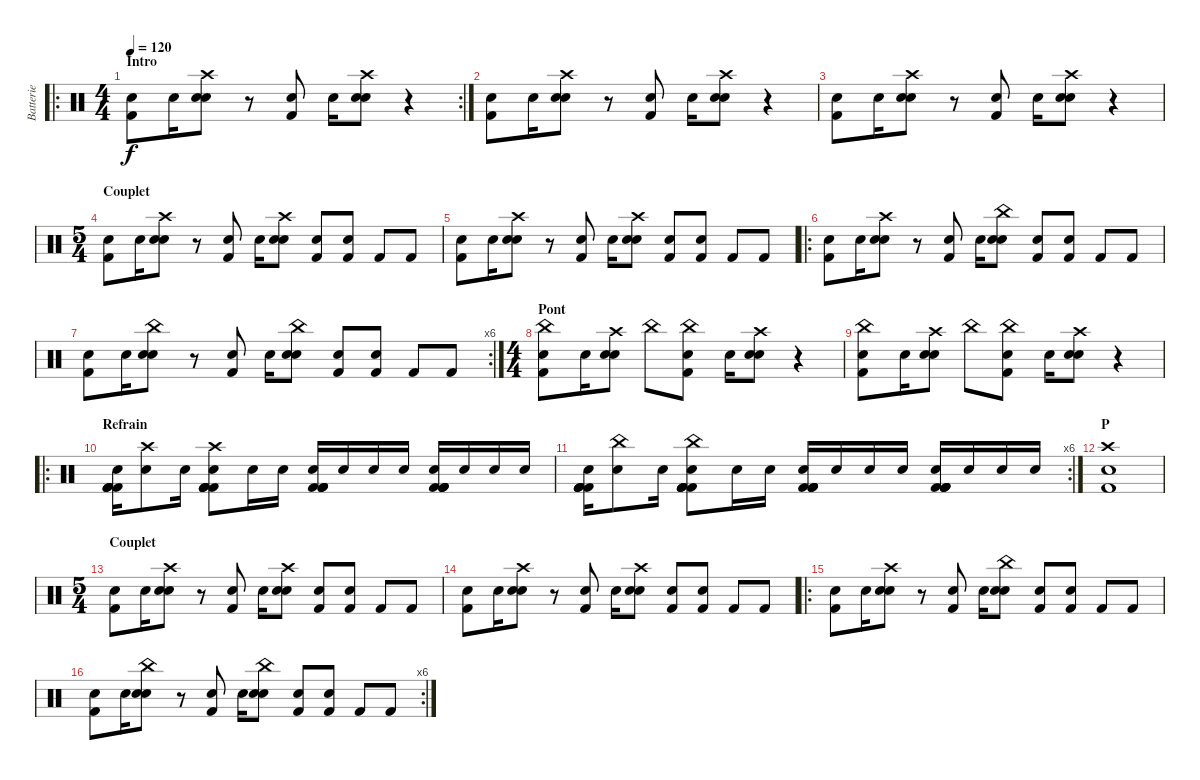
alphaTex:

\track ("Batterie" "Batterie") {instrument percussion}
\staff {score}
\articulation defaults
\ro
\rc 2
\ts (4 4)
\section ("" "Intro")
\tempo 120
\clef neutral
\ks c
("Electric Snare (hit)" "Kick (hit) 2").8{dy f} "Electric Snare (hit)".16 ("Electric Snare (hit)" "Snare (hit) 2" "Crash high (hit)").8 r.8 ("Electric Snare (hit)" "Kick (hit) 2").8 "Electric Snare (hit)".16 ("Electric Snare (hit)" "Snare (hit) 2" "Crash high (hit)").8 r.4 |
("Electric Snare (hit)" "Kick (hit) 2").8 "Electric Snare (hit)".16 ("Electric Snare (hit)" "Snare (hit) 2" "Crash high (hit)").8 r.8 ("Electric Snare (hit)" "Kick (hit) 2").8 "Electric Snare (hit)".16 ("Electric Snare (hit)" "Snare (hit) 2" "Crash high (hit)").8 r.4 |
("Electric Snare (hit)" "Kick (hit) 2").8 "Electric Snare (hit)".16 ("Electric Snare (hit)" "Snare (hit) 2" "Crash high (hit)").8 r.8 ("Electric Snare (hit)" "Kick (hit) 2").8 "Electric Snare (hit)".16 ("Electric Snare (hit)" "Snare (hit) 2" "Crash high (hit)").8 r.4 |
\ts (5 4)
\section ("" "Couplet")
("Electric Snare (hit)" "Kick (hit) 2").8 "Electric Snare (hit)".16 ("Electric Snare (hit)" "Snare (hit) 2" "Crash high (hit)").8 r.8 ("Electric Snare (hit)" "Kick (hit) 2").8 "Electric Snare (hit)".16 ("Electric Snare (hit)" "Snare (hit) 2" "Crash high (hit)").8 ("Electric Snare (hit)" "Kick (hit) 2").8 ("Electric Snare (hit)" "Kick (hit) 2").8 "Kick (hit) 2".8 "Kick (hit) 2".8 |
("Electric Snare (hit)" "Kick (hit) 2").8 "Electric Snare (hit)".16 ("Electric Snare (hit)" "Snare (hit) 2" "Crash high (hit)").8 r.8 ("Electric Snare (hit)" "Kick (hit) 2").8 "Electric Snare (hit)".16 ("Electric Snare (hit)" "Snare (hit) 2" "Crash high (hit)").8 ("Electric Snare (hit)" "Kick (hit) 2").8 ("Electric Snare (hit)" "Kick (hit) 2").8 "Kick (hit) 2".8 "Kick (hit) 2".8 |
\ro
("Electric Snare (hit)" "Kick (hit) 2").8 "Electric Snare (hit)".16 ("Electric Snare (hit)" "Snare (hit) 2" "Crash high (hit)").8 r.8 ("Electric Snare (hit)" "Kick (hit) 2").8 "Electric Snare (hit)".16 ("Electric Snare (hit)" "Snare (hit) 2" "China (hit)").8 ("Electric Snare (hit)" "Kick (hit) 2").8 ("Electric Snare (hit)" "Kick (hit) 2").8 "Kick (hit) 2".8 "Kick (hit) 2".8 |
\rc 6
("Electric Snare (hit)" "Kick (hit) 2").8 "Electric Snare (hit)".16 ("Electric Snare (hit)" "Snare (hit) 2" "China (hit)").8 r.8 ("Electric Snare (hit)" "Kick (hit) 2").8 "Electric Snare (hit)".16 ("Electric Snare (hit)" "Snare (hit) 2" "China (hit)").8 ("Electric Snare (hit)" "Kick (hit) 2").8 ("Electric Snare (hit)" "Kick (hit) 2").8 "Kick (hit) 2".8 "Kick (hit) 2".8 |
\ts (4 4)
\section ("" "Pont")
("Electric Snare (hit)" "Kick (hit) 2" "China (hit)").8 "Electric Snare (hit)".16 ("Electric Snare (hit)" "Snare (hit) 2" "Crash high (hit)").8 "China (hit)".8 ("Electric Snare (hit)" "Kick (hit) 2" "China (hit)").8 "Electric Snare (hit)".16 ("Electric Snare (hit)" "Snare (hit) 2" "Crash high (hit)").8 r.4 |
("Electric Snare (hit)" "Kick (hit) 2" "China (hit)").8 "Electric Snare (hit)".16 ("Electric Snare (hit)" "Snare (hit) 2" "Crash high (hit)").8 "China (hit)".8 ("Electric Snare (hit)" "Kick (hit) 2" "China (hit)").8 "Electric Snare (hit)".16 ("Electric Snare (hit)" "Snare (hit) 2" "Crash high (hit)").8 r.4 |
\ro
\section ("" "Refrain")
("Electric Snare (hit)" "Kick (hit) 2" "Kick (hit) 2" "Kick (hit) 2" "Kick (hit) 2").16 ("Snare (hit) 2" "Crash high (hit)").8 "Electric Snare (hit)".16 ("Snare (hit) 2" "Crash high (hit)" "Kick (hit) 2" "Kick (hit) 2" "Kick (hit) 2" "Kick (hit) 2").8 "Snare (hit) 2".16 "Snare (hit) 2".16 ("Snare (hit) 2" "Kick (hit) 2" "Kick (hit) 2" "Kick (hit) 2" "Kick (hit) 2").16 "Snare (hit) 2".16 "Snare (hit) 2".16 "Snare (hit) 2".16 ("Snare (hit) 2" "Kick (hit) 2" "Kick (hit) 2" "Kick (hit) 2" "Kick (hit) 2").16 "Snare (hit) 2".16 "Snare (hit) 2".16 "Snare (hit) 2".16 |
\rc 6
("Snare (hit) 2" "Kick (hit) 2" "Kick (hit) 2" "Kick (hit) 2" "Kick (hit) 2").16 ("Electric Snare (hit)" "China (hit)").8 "Snare (hit) 2".16 ("Electric Snare (hit)" "China (hit)" "Kick (hit) 2" "Kick (hit) 2" "Kick (hit) 2" "Kick (hit) 2").8 "Electric Snare (hit)".16 "Electric Snare (hit)".16 ("Electric Snare (hit)" "Kick (hit) 2" "Kick (hit) 2" "Kick (hit) 2" "Kick (hit) 2").16 "Electric Snare (hit)".16 "Electric Snare (hit)".16 "Electric Snare (hit)".16 ("Electric Snare (hit)" "Kick (hit) 2" "Kick (hit) 2" "Kick (hit) 2" "Kick (hit) 2").16 "Electric Snare (hit)".16 "Electric Snare (hit)".16 "Electric Snare (hit)".16 |
\section ("" "P")
("Electric Snare (hit)" "Kick (hit) 2" "Crash high (hit)").1 |
\ts (5 4)
\section ("" "Couplet")
("Electric Snare (hit)" "Kick (hit) 2").8 "Electric Snare (hit)".16 ("Electric Snare (hit)" "Snare (hit) 2" "Crash high (hit)").8 r.8 ("Electric Snare (hit)" "Kick (hit) 2").8 "Electric Snare (hit)".16 ("Electric Snare (hit)" "Snare (hit) 2" "Crash high (hit)").8 ("Electric Snare (hit)" "Kick (hit) 2").8 ("Electric Snare (hit)" "Kick (hit) 2").8 "Kick (hit) 2".8 "Kick (hit) 2".8 |
("Electric Snare (hit)" "Kick (hit) 2").8 "Electric Snare (hit)".16 ("Electric Snare (hit)" "Snare (hit) 2" "Crash high (hit)").8 r.8 ("Electric Snare (hit)" "Kick (hit) 2").8 "Electric Snare (hit)".16 ("Electric Snare (hit)" "Snare (hit) 2" "Crash high (hit)").8 ("Electric Snare (hit)" "Kick (hit) 2").8 ("Electric Snare (hit)" "Kick (hit) 2").8 "Kick (hit) 2".8 "Kick (hit) 2".8 |
\ro
("Electric Snare (hit)" "Kick (hit) 2").8 "Electric Snare (hit)".16 ("Electric Snare (hit)" "Snare (hit) 2" "Crash high (hit)").8 r.8 ("Electric Snare (hit)" "Kick (hit) 2").8 "Electric Snare (hit)".16 ("Electric Snare (hit)" "Snare (hit) 2" "China (hit)").8 ("Electric Snare (hit)" "Kick (hit) 2").8 ("Electric Snare (hit)" "Kick (hit) 2").8 "Kick (hit) 2".8 "Kick (hit) 2".8 |
\rc 6
("Electric Snare (hit)" "Kick (hit) 2").8 "Electric Snare (hit)".16 ("Electric Snare (hit)" "Snare (hit) 2" "China (hit)").8 r.8 ("Electric Snare (hit)" "Kick (hit) 2").8 "Electric Snare (hit)".16 ("Electric Snare (hit)" "Snare (hit) 2" "China (hit)").8 ("Electric Snare (hit)" "Kick (hit) 2").8 ("Electric Snare (hit)" "Kick (hit) 2").8 "Kick (hit) 2".8 "Kick (hit) 2".8
